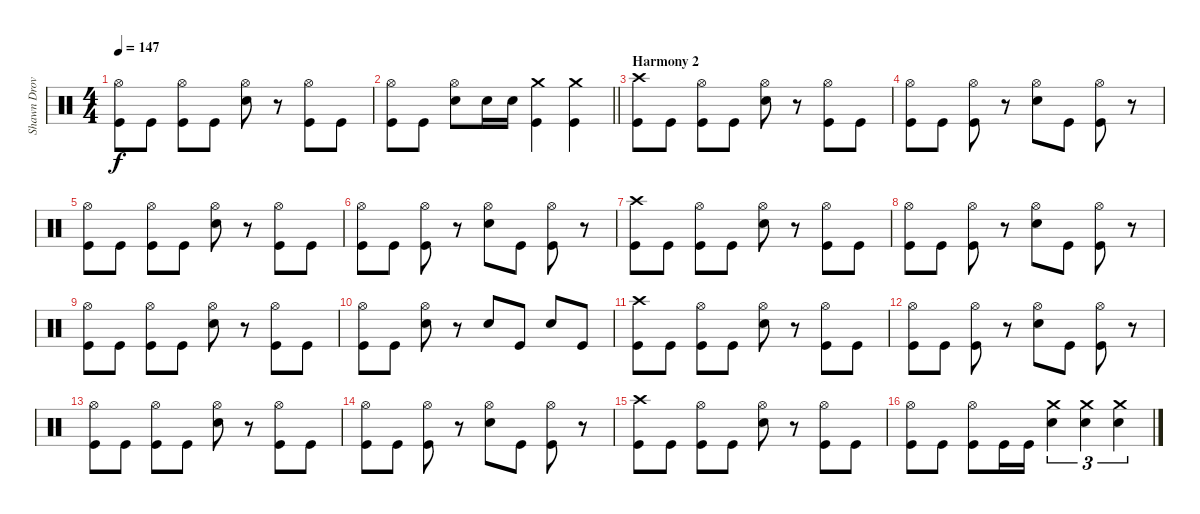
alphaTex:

\track ("Shawn Drover" "Shawn Drov") {instrument percussion}
\staff {score}
\articulation defaults
\ts (4 4)
\tempo 147
\clef neutral
\ks c
("Hi-Hat (open)" "Kick (hit)").8{dy f} "Kick (hit)".8 ("Hi-Hat (open)" "Kick (hit)").8 "Kick (hit)".8 ("Hi-Hat (open)" "Snare (hit) 2").8 r.8 ("Hi-Hat (open)" "Kick (hit)").8 "Kick (hit)".8 |
\barLineRight lightlight
("Hi-Hat (open)" "Kick (hit)").8 "Kick (hit)".8 ("Hi-Hat (open)" "Snare (hit) 2").8 "Snare (hit) 2".16 "Snare (hit) 2".16 ("Crash medium (hit)" "Kick (hit)").4 ("Crash medium (hit)" "Kick (hit)").4 |
\section ("" "Harmony 2")
("Crash high (hit)" "Kick (hit)").8 "Kick (hit)".8 ("Hi-Hat (open)" "Kick (hit)").8 "Kick (hit)".8 ("Hi-Hat (open)" "Snare (hit) 2").8 r.8 ("Hi-Hat (open)" "Kick (hit)").8 "Kick (hit)".8 |
("Hi-Hat (open)" "Kick (hit)").8 "Kick (hit)".8 ("Hi-Hat (open)" "Kick (hit)").8 r.8 ("Hi-Hat (open)" "Snare (hit) 2").8 "Kick (hit)".8 ("Hi-Hat (open)" "Kick (hit)").8 r.8 |
("Hi-Hat (open)" "Kick (hit)").8 "Kick (hit)".8 ("Hi-Hat (open)" "Kick (hit)").8 "Kick (hit)".8 ("Hi-Hat (open)" "Snare (hit) 2").8 r.8 ("Hi-Hat (open)" "Kick (hit)").8 "Kick (hit)".8 |
("Hi-Hat (open)" "Kick (hit)").8 "Kick (hit)".8 ("Hi-Hat (open)" "Kick (hit)").8 r.8 ("Hi-Hat (open)" "Snare (hit) 2").8 "Kick (hit)".8 ("Hi-Hat (open)" "Kick (hit)").8 r.8 |
("Crash high (hit)" "Kick (hit)").8 "Kick (hit)".8 ("Hi-Hat (open)" "Kick (hit)").8 "Kick (hit)".8 ("Hi-Hat (open)" "Snare (hit) 2").8 r.8 ("Hi-Hat (open)" "Kick (hit)").8 "Kick (hit)".8 |
("Hi-Hat (open)" "Kick (hit)").8 "Kick (hit)".8 ("Hi-Hat (open)" "Kick (hit)").8 r.8 ("Hi-Hat (open)" "Snare (hit) 2").8 "Kick (hit)".8 ("Hi-Hat (open)" "Kick (hit)").8 r.8 |
("Hi-Hat (open)" "Kick (hit)").8 "Kick (hit)".8 ("Hi-Hat (open)" "Kick (hit)").8 "Kick (hit)".8 ("Hi-Hat (open)" "Snare (hit) 2").8 r.8 ("Hi-Hat (open)" "Kick (hit)").8 "Kick (hit)".8 |
("Hi-Hat (open)" "Kick (hit)").8 "Kick (hit)".8 ("Hi-Hat (open)" "Snare (hit) 2").8 r.8 "Snare (hit) 2".8 "Kick (hit)".8 "Snare (hit) 2".8 "Kick (hit)".8 |
("Crash high (hit)" "Kick (hit)").8 "Kick (hit)".8 ("Hi-Hat (open)" "Kick (hit)").8 "Kick (hit)".8 ("Hi-Hat (open)" "Snare (hit) 2").8 r.8 ("Hi-Hat (open)" "Kick (hit)").8 "Kick (hit)".8 |
("Hi-Hat (open)" "Kick (hit)").8 "Kick (hit)".8 ("Hi-Hat (open)" "Kick (hit)").8 r.8 ("Hi-Hat (open)" "Snare (hit) 2").8 "Kick (hit)".8 ("Hi-Hat (open)" "Kick (hit)").8 r.8 |
("Hi-Hat (open)" "Kick (hit)").8 "Kick (hit)".8 ("Hi-Hat (open)" "Kick (hit)").8 "Kick (hit)".8 ("Hi-Hat (open)" "Snare (hit) 2").8 r.8 ("Hi-Hat (open)" "Kick (hit)").8 "Kick (hit)".8 |
("Hi-Hat (open)" "Kick (hit)").8 "Kick (hit)".8 ("Hi-Hat (open)" "Kick (hit)").8 r.8 ("Hi-Hat (open)" "Snare (hit) 2").8 "Kick (hit)".8 ("Hi-Hat (open)" "Kick (hit)").8 r.8 |
("Crash high (hit)" "Kick (hit)").8 "Kick (hit)".8 ("Hi-Hat (open)" "Kick (hit)").8 "Kick (hit)".8 ("Hi-Hat (open)" "Snare (hit) 2").8 r.8 ("Hi-Hat (open)" "Kick (hit)").8 "Kick (hit)".8 |
("Hi-Hat (open)" "Kick (hit)").8 "Kick (hit)".8 ("Hi-Hat (open)" "Kick (hit)").8 "Kick (hit)".16 "Kick (hit)".16 ("Crash medium (hit)" "Snare (hit) 2").4{tu (3 2)} ("Crash medium (hit)" "Snare (hit) 2").4{tu (3 2)} ("Crash medium (hit)" "Snare (hit) 2").4{tu (3 2)}
